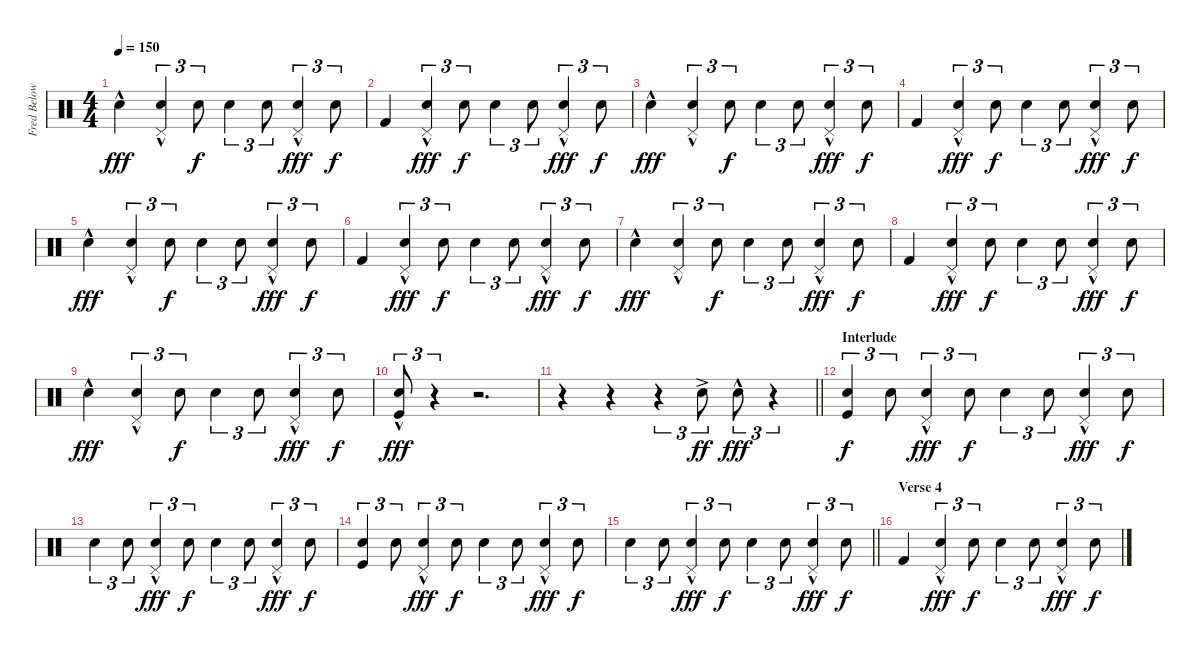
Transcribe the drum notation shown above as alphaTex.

\track ("Fred Below" "Fred Below") {instrument percussion}
\staff {score}
\articulation defaults
\ts (4 4)
\tempo 150
\clef neutral
\ks c "Snare (hit) 2"{hac}.4{dy fff}
("Snare (hit) 2"{hac} "Pedal Hi-Hat (hit)").4{tu (3 2)} "Snare (hit) 2".8{tu (3 2) dy f} "Electric Snare (hit)".4{tu (3 2)} "Snare (hit) 2".8{tu (3 2)} ("Hand Clap (hit)"{hac} "Pedal Hi-Hat (hit)").4{tu (3 2) dy fff} "Snare (hit) 2".8{tu (3 2) dy f} |
"Kick (hit) 2".4 ("Snare (hit) 2"{hac} "Pedal Hi-Hat (hit)").4{tu (3 2) dy fff} "Snare (hit) 2".8{tu (3 2) dy f} "Electric Snare (hit)".4{tu (3 2)} "Snare (hit) 2".8{tu (3 2)} ("Hand Clap (hit)"{hac} "Pedal Hi-Hat (hit)").4{tu (3 2) dy fff} "Snare (hit) 2".8{tu (3 2) dy f} |
"Snare (hit) 2"{hac}.4{dy fff} ("Snare (hit) 2"{hac} "Pedal Hi-Hat (hit)").4{tu (3 2)} "Snare (hit) 2".8{tu (3 2) dy f} "Electric Snare (hit)".4{tu (3 2)} "Snare (hit) 2".8{tu (3 2)} ("Hand Clap (hit)"{hac} "Pedal Hi-Hat (hit)").4{tu (3 2) dy fff} "Snare (hit) 2".8{tu (3 2) dy f} |
"Kick (hit) 2".4 ("Snare (hit) 2"{hac} "Pedal Hi-Hat (hit)").4{tu (3 2) dy fff} "Snare (hit) 2".8{tu (3 2) dy f} "Electric Snare (hit)".4{tu (3 2)} "Snare (hit) 2".8{tu (3 2)} ("Hand Clap (hit)"{hac} "Pedal Hi-Hat (hit)").4{tu (3 2) dy fff} "Snare (hit) 2".8{tu (3 2) dy f} |
"Snare (hit) 2"{hac}.4{dy fff} ("Snare (hit) 2"{hac} "Pedal Hi-Hat (hit)").4{tu (3 2)} "Snare (hit) 2".8{tu (3 2) dy f} "Electric Snare (hit)".4{tu (3 2)} "Snare (hit) 2".8{tu (3 2)} ("Hand Clap (hit)"{hac} "Pedal Hi-Hat (hit)").4{tu (3 2) dy fff} "Snare (hit) 2".8{tu (3 2) dy f} |
"Kick (hit) 2".4 ("Snare (hit) 2"{hac} "Pedal Hi-Hat (hit)").4{tu (3 2) dy fff} "Snare (hit) 2".8{tu (3 2) dy f} "Electric Snare (hit)".4{tu (3 2)} "Snare (hit) 2".8{tu (3 2)} ("Hand Clap (hit)"{hac} "Pedal Hi-Hat (hit)").4{tu (3 2) dy fff} "Snare (hit) 2".8{tu (3 2) dy f} |
"Snare (hit) 2"{hac}.4{dy fff} ("Snare (hit) 2"{hac} "Pedal Hi-Hat (hit)").4{tu (3 2)} "Snare (hit) 2".8{tu (3 2) dy f} "Electric Snare (hit)".4{tu (3 2)} "Snare (hit) 2".8{tu (3 2)} ("Hand Clap (hit)"{hac} "Pedal Hi-Hat (hit)").4{tu (3 2) dy fff} "Snare (hit) 2".8{tu (3 2) dy f} |
"Kick (hit) 2".4 ("Snare (hit) 2"{hac} "Pedal Hi-Hat (hit)").4{tu (3 2) dy fff} "Snare (hit) 2".8{tu (3 2) dy f} "Electric Snare (hit)".4{tu (3 2)} "Snare (hit) 2".8{tu (3 2)} ("Hand Clap (hit)"{hac} "Pedal Hi-Hat (hit)").4{tu (3 2) dy fff} "Snare (hit) 2".8{tu (3 2) dy f} |
"Snare (hit) 2"{hac}.4{dy fff} ("Snare (hit) 2"{hac} "Pedal Hi-Hat (hit)").4{tu (3 2)} "Snare (hit) 2".8{tu (3 2) dy f} "Electric Snare (hit)".4{tu (3 2)} "Snare (hit) 2".8{tu (3 2)} ("Hand Clap (hit)"{hac} "Pedal Hi-Hat (hit)").4{tu (3 2) dy fff} "Snare (hit) 2".8{tu (3 2) dy f} |
("Hand Clap (hit)"{hac} "Kick (hit)").8{tu (3 2) dy fff} r.4{tu (3 2)} r.2{d} |
\barLineRight lightlight
r.4 r.4 r.4{tu (3 2)} "Snare (hit) 2"{ac}.8{tu (3 2) dy ff} "Hand Clap (hit)"{hac}.8{tu (3 2) dy fff} r.4{tu (3 2)} |
\section ("" "Interlude")
("Snare (hit) 2" "Kick (hit)").4{tu (3 2) dy f} "Snare (hit) 2".8{tu (3 2)} ("Snare (hit) 2"{hac} "Pedal Hi-Hat (hit)").4{tu (3 2) dy fff} "Snare (hit) 2".8{tu (3 2) dy f} "Snare (hit) 2".4{tu (3 2)} "Snare (hit) 2".8{tu (3 2)} ("Hand Clap (hit)"{hac} "Pedal Hi-Hat (hit)").4{tu (3 2) dy fff} "Snare (hit) 2".8{tu (3 2) dy f} |
"Snare (hit) 2".4{tu (3 2)} "Snare (hit) 2".8{tu (3 2)} ("Snare (hit) 2"{hac} "Pedal Hi-Hat (hit)").4{tu (3 2) dy fff} "Snare (hit) 2".8{tu (3 2) dy f} "Snare (hit) 2".4{tu (3 2)} "Snare (hit) 2".8{tu (3 2)} ("Hand Clap (hit)"{hac} "Pedal Hi-Hat (hit)").4{tu (3 2) dy fff} "Snare (hit) 2".8{tu (3 2) dy f} |
("Snare (hit) 2" "Kick (hit)").4{tu (3 2)} "Snare (hit) 2".8{tu (3 2)} ("Snare (hit) 2"{hac} "Pedal Hi-Hat (hit)").4{tu (3 2) dy fff} "Snare (hit) 2".8{tu (3 2) dy f} "Snare (hit) 2".4{tu (3 2)} "Snare (hit) 2".8{tu (3 2)} ("Hand Clap (hit)"{hac} "Pedal Hi-Hat (hit)").4{tu (3 2) dy fff} "Snare (hit) 2".8{tu (3 2) dy f} |
\barLineRight lightlight "Snare (hit) 2".4{tu (3 2)} "Snare (hit) 2".8{tu (3 2)}
("Snare (hit) 2"{hac} "Pedal Hi-Hat (hit)").4{tu (3 2) dy fff} "Snare (hit) 2".8{tu (3 2) dy f} "Snare (hit) 2".4{tu (3 2)} "Snare (hit) 2".8{tu (3 2)} ("Hand Clap (hit)"{hac} "Pedal Hi-Hat (hit)").4{tu (3 2) dy fff} "Snare (hit) 2".8{tu (3 2) dy f} |
\section ("" "Verse 4")
"Kick (hit) 2".4 ("Snare (hit) 2"{hac} "Pedal Hi-Hat (hit)").4{tu (3 2) dy fff} "Snare (hit) 2".8{tu (3 2) dy f} "Electric Snare (hit)".4{tu (3 2)} "Snare (hit) 2".8{tu (3 2)} ("Hand Clap (hit)"{hac} "Pedal Hi-Hat (hit)").4{tu (3 2) dy fff} "Snare (hit) 2".8{tu (3 2) dy f}
